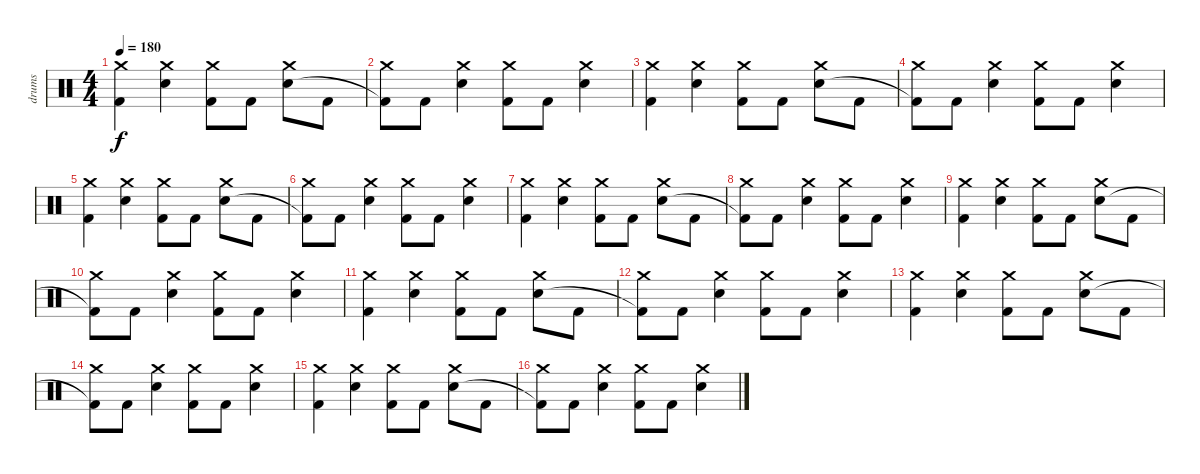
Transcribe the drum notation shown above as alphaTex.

\track ("drums" "drums") {instrument percussion}
\staff {score}
\articulation defaults
\ts (4 4)
\tempo 180
\clef neutral
\ks c
("Crash medium (hit)" "Kick (hit) 2").4{dy f} ("Crash medium (hit)" "Electric Snare (hit)").4 ("Crash medium (hit)" "Kick (hit) 2").8 "Kick (hit) 2".8 ("Crash medium (hit)" "Electric Snare (hit)").8 "Kick (hit) 2".8 |
("Crash medium (hit)" "Kick (hit) 2"{t}).8 "Kick (hit) 2".8 ("Crash medium (hit)" "Electric Snare (hit)").4 ("Crash medium (hit)" "Kick (hit) 2").8 "Kick (hit) 2".8 ("Crash medium (hit)" "Electric Snare (hit)").4 |
("Crash medium (hit)" "Kick (hit) 2").4 ("Crash medium (hit)" "Electric Snare (hit)").4 ("Crash medium (hit)" "Kick (hit) 2").8 "Kick (hit) 2".8 ("Crash medium (hit)" "Electric Snare (hit)").8 "Kick (hit) 2".8 |
("Crash medium (hit)" "Kick (hit) 2"{t}).8 "Kick (hit) 2".8 ("Crash medium (hit)" "Electric Snare (hit)").4 ("Crash medium (hit)" "Kick (hit) 2").8 "Kick (hit) 2".8 ("Crash medium (hit)" "Electric Snare (hit)").4 |
("Crash medium (hit)" "Kick (hit) 2").4 ("Crash medium (hit)" "Electric Snare (hit)").4 ("Crash medium (hit)" "Kick (hit) 2").8 "Kick (hit) 2".8 ("Crash medium (hit)" "Electric Snare (hit)").8 "Kick (hit) 2".8 |
("Crash medium (hit)" "Kick (hit) 2"{t}).8 "Kick (hit) 2".8 ("Crash medium (hit)" "Electric Snare (hit)").4 ("Crash medium (hit)" "Kick (hit) 2").8 "Kick (hit) 2".8 ("Crash medium (hit)" "Electric Snare (hit)").4 |
("Crash medium (hit)" "Kick (hit) 2").4 ("Crash medium (hit)" "Electric Snare (hit)").4 ("Crash medium (hit)" "Kick (hit) 2").8 "Kick (hit) 2".8 ("Crash medium (hit)" "Electric Snare (hit)").8 "Kick (hit) 2".8 |
("Crash medium (hit)" "Kick (hit) 2"{t}).8 "Kick (hit) 2".8 ("Crash medium (hit)" "Electric Snare (hit)").4 ("Crash medium (hit)" "Kick (hit) 2").8 "Kick (hit) 2".8 ("Crash medium (hit)" "Electric Snare (hit)").4 |
("Crash medium (hit)" "Kick (hit) 2").4 ("Crash medium (hit)" "Electric Snare (hit)").4 ("Crash medium (hit)" "Kick (hit) 2").8 "Kick (hit) 2".8 ("Crash medium (hit)" "Electric Snare (hit)").8 "Kick (hit) 2".8 |
("Crash medium (hit)" "Kick (hit) 2"{t}).8 "Kick (hit) 2".8 ("Crash medium (hit)" "Electric Snare (hit)").4 ("Crash medium (hit)" "Kick (hit) 2").8 "Kick (hit) 2".8 ("Crash medium (hit)" "Electric Snare (hit)").4 |
("Crash medium (hit)" "Kick (hit) 2").4 ("Crash medium (hit)" "Electric Snare (hit)").4 ("Crash medium (hit)" "Kick (hit) 2").8 "Kick (hit) 2".8 ("Crash medium (hit)" "Electric Snare (hit)").8 "Kick (hit) 2".8 |
("Crash medium (hit)" "Kick (hit) 2"{t}).8 "Kick (hit) 2".8 ("Crash medium (hit)" "Electric Snare (hit)").4 ("Crash medium (hit)" "Kick (hit) 2").8 "Kick (hit) 2".8 ("Crash medium (hit)" "Electric Snare (hit)").4 |
("Crash medium (hit)" "Kick (hit) 2").4 ("Crash medium (hit)" "Electric Snare (hit)").4 ("Crash medium (hit)" "Kick (hit) 2").8 "Kick (hit) 2".8 ("Crash medium (hit)" "Electric Snare (hit)").8 "Kick (hit) 2".8 |
("Crash medium (hit)" "Kick (hit) 2"{t}).8 "Kick (hit) 2".8 ("Crash medium (hit)" "Electric Snare (hit)").4 ("Crash medium (hit)" "Kick (hit) 2").8 "Kick (hit) 2".8 ("Crash medium (hit)" "Electric Snare (hit)").4 |
("Crash medium (hit)" "Kick (hit) 2").4 ("Crash medium (hit)" "Electric Snare (hit)").4 ("Crash medium (hit)" "Kick (hit) 2").8 "Kick (hit) 2".8 ("Crash medium (hit)" "Electric Snare (hit)").8 "Kick (hit) 2".8 |
("Crash medium (hit)" "Kick (hit) 2"{t}).8 "Kick (hit) 2".8 ("Crash medium (hit)" "Electric Snare (hit)").4 ("Crash medium (hit)" "Kick (hit) 2").8 "Kick (hit) 2".8 ("Crash medium (hit)" "Electric Snare (hit)").4
